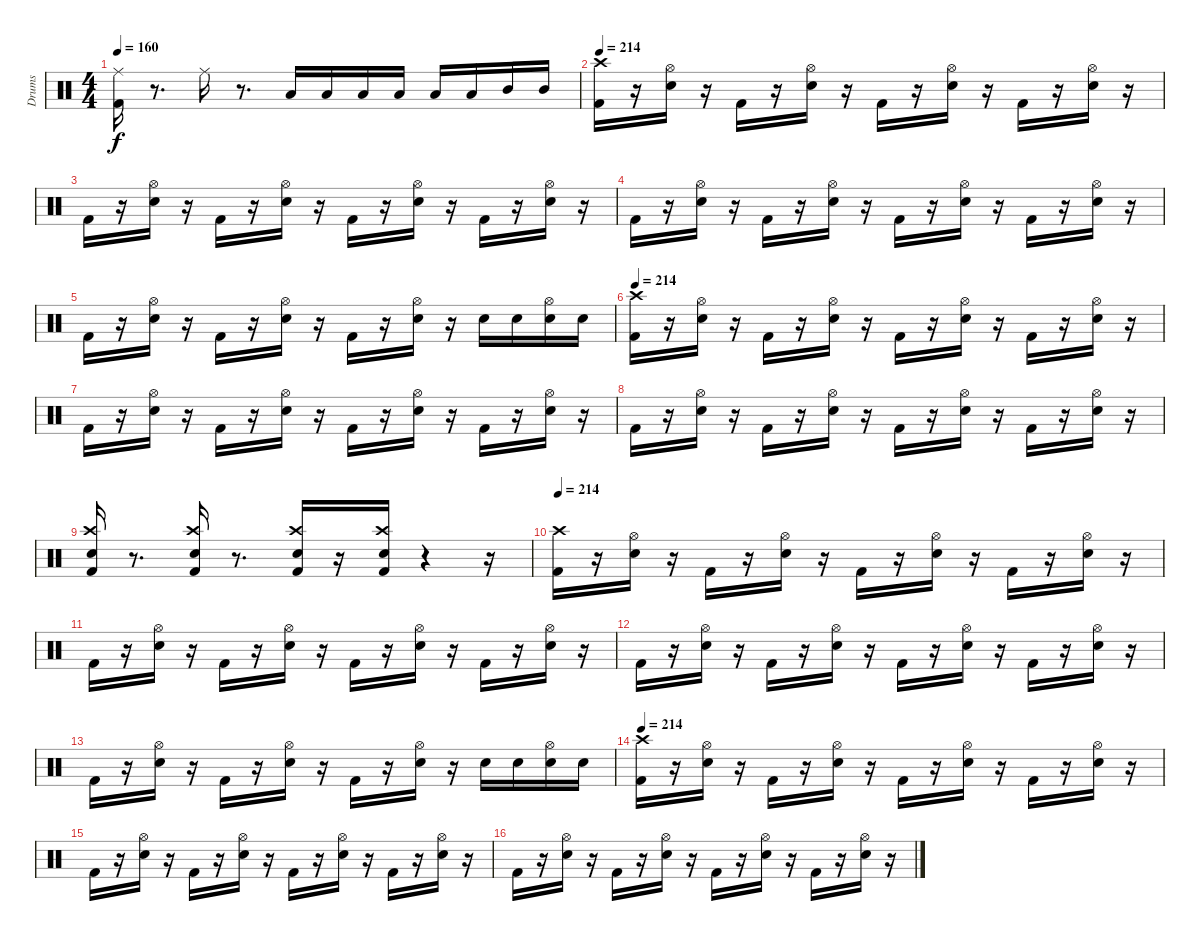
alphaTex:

\track ("Drums               " "Drums     ") {instrument percussion}
\staff {score}
\articulation defaults
\ts (4 4)
\tempo 160
\clef neutral
\ks c
("Kick (hit) 2" "Ride (middle)").16{dy f} r.8{d} "Ride (middle)".16 r.8{d} "Low Floor Tom (hit)".16 "Low Floor Tom (hit)".16 "Low Floor Tom (hit)".16 "Low Tom (hit)".16 "Low Tom (hit)".16 "Low Tom (hit)".16 "Mid Tom (hit)".16 "Mid Tom (hit)".16 |
\tempo 214
("Kick (hit) 2" "Crash high (hit)").16 r.16 ("Snare (hit) 2" "Hi-Hat (open)").16 r.16 "Kick (hit) 2".16 r.16 ("Snare (hit) 2" "Hi-Hat (open)").16 r.16 "Kick (hit) 2".16 r.16 ("Snare (hit) 2" "Hi-Hat (open)").16 r.16 "Kick (hit) 2".16 r.16 ("Snare (hit) 2" "Hi-Hat (open)").16 r.16 |
"Kick (hit) 2".16 r.16 ("Snare (hit) 2" "Hi-Hat (open)").16 r.16 "Kick (hit) 2".16 r.16 ("Snare (hit) 2" "Hi-Hat (open)").16 r.16 "Kick (hit) 2".16 r.16 ("Snare (hit) 2" "Hi-Hat (open)").16 r.16 "Kick (hit) 2".16 r.16 ("Snare (hit) 2" "Hi-Hat (open)").16 r.16 |
"Kick (hit) 2".16 r.16 ("Snare (hit) 2" "Hi-Hat (open)").16 r.16 "Kick (hit) 2".16 r.16 ("Snare (hit) 2" "Hi-Hat (open)").16 r.16 "Kick (hit) 2".16 r.16 ("Snare (hit) 2" "Hi-Hat (open)").16 r.16 "Kick (hit) 2".16 r.16 ("Snare (hit) 2" "Hi-Hat (open)").16 r.16 |
"Kick (hit) 2".16 r.16 ("Snare (hit) 2" "Hi-Hat (open)").16 r.16 "Kick (hit) 2".16 r.16 ("Snare (hit) 2" "Hi-Hat (open)").16 r.16 "Kick (hit) 2".16 r.16 ("Snare (hit) 2" "Hi-Hat (open)").16 r.16 "Snare (hit) 2".16 "Snare (hit) 2".16 ("Snare (hit) 2" "Hi-Hat (open)").16 "Snare (hit) 2".16 |
\tempo 214
("Kick (hit) 2" "Crash high (hit)").16 r.16 ("Snare (hit) 2" "Hi-Hat (open)").16 r.16 "Kick (hit) 2".16 r.16 ("Snare (hit) 2" "Hi-Hat (open)").16 r.16 "Kick (hit) 2".16 r.16 ("Snare (hit) 2" "Hi-Hat (open)").16 r.16 "Kick (hit) 2".16 r.16 ("Snare (hit) 2" "Hi-Hat (open)").16 r.16 |
"Kick (hit) 2".16 r.16 ("Snare (hit) 2" "Hi-Hat (open)").16 r.16 "Kick (hit) 2".16 r.16 ("Snare (hit) 2" "Hi-Hat (open)").16 r.16 "Kick (hit) 2".16 r.16 ("Snare (hit) 2" "Hi-Hat (open)").16 r.16 "Kick (hit) 2".16 r.16 ("Snare (hit) 2" "Hi-Hat (open)").16 r.16 |
"Kick (hit) 2".16 r.16 ("Snare (hit) 2" "Hi-Hat (open)").16 r.16 "Kick (hit) 2".16 r.16 ("Snare (hit) 2" "Hi-Hat (open)").16 r.16 "Kick (hit) 2".16 r.16 ("Snare (hit) 2" "Hi-Hat (open)").16 r.16 "Kick (hit) 2".16 r.16 ("Snare (hit) 2" "Hi-Hat (open)").16 r.16 |
("Kick (hit) 2" "Snare (hit) 2" "Crash high (hit)").16 r.8{d} ("Kick (hit) 2" "Snare (hit) 2" "Crash high (hit)").16 r.8{d} ("Kick (hit) 2" "Snare (hit) 2" "Crash high (hit)").16 r.16 ("Kick (hit) 2" "Snare (hit) 2" "Crash high (hit)").16 r.4 r.16 |
\tempo 214
("Kick (hit) 2" "Crash high (hit)").16 r.16 ("Snare (hit) 2" "Hi-Hat (open)").16 r.16 "Kick (hit) 2".16 r.16 ("Snare (hit) 2" "Hi-Hat (open)").16 r.16 "Kick (hit) 2".16 r.16 ("Snare (hit) 2" "Hi-Hat (open)").16 r.16 "Kick (hit) 2".16 r.16 ("Snare (hit) 2" "Hi-Hat (open)").16 r.16 |
"Kick (hit) 2".16 r.16 ("Snare (hit) 2" "Hi-Hat (open)").16 r.16 "Kick (hit) 2".16 r.16 ("Snare (hit) 2" "Hi-Hat (open)").16 r.16 "Kick (hit) 2".16 r.16 ("Snare (hit) 2" "Hi-Hat (open)").16 r.16 "Kick (hit) 2".16 r.16 ("Snare (hit) 2" "Hi-Hat (open)").16 r.16 |
"Kick (hit) 2".16 r.16 ("Snare (hit) 2" "Hi-Hat (open)").16 r.16 "Kick (hit) 2".16 r.16 ("Snare (hit) 2" "Hi-Hat (open)").16 r.16 "Kick (hit) 2".16 r.16 ("Snare (hit) 2" "Hi-Hat (open)").16 r.16 "Kick (hit) 2".16 r.16 ("Snare (hit) 2" "Hi-Hat (open)").16 r.16 |
"Kick (hit) 2".16 r.16 ("Snare (hit) 2" "Hi-Hat (open)").16 r.16 "Kick (hit) 2".16 r.16 ("Snare (hit) 2" "Hi-Hat (open)").16 r.16 "Kick (hit) 2".16 r.16 ("Snare (hit) 2" "Hi-Hat (open)").16 r.16 "Snare (hit) 2".16 "Snare (hit) 2".16 ("Snare (hit) 2" "Hi-Hat (open)").16 "Snare (hit) 2".16 |
\tempo 214
("Kick (hit) 2" "Crash high (hit)").16 r.16 ("Snare (hit) 2" "Hi-Hat (open)").16 r.16 "Kick (hit) 2".16 r.16 ("Snare (hit) 2" "Hi-Hat (open)").16 r.16 "Kick (hit) 2".16 r.16 ("Snare (hit) 2" "Hi-Hat (open)").16 r.16 "Kick (hit) 2".16 r.16 ("Snare (hit) 2" "Hi-Hat (open)").16 r.16 |
"Kick (hit) 2".16 r.16 ("Snare (hit) 2" "Hi-Hat (open)").16 r.16 "Kick (hit) 2".16 r.16 ("Snare (hit) 2" "Hi-Hat (open)").16 r.16 "Kick (hit) 2".16 r.16 ("Snare (hit) 2" "Hi-Hat (open)").16 r.16 "Kick (hit) 2".16 r.16 ("Snare (hit) 2" "Hi-Hat (open)").16 r.16 |
"Kick (hit) 2".16 r.16 ("Snare (hit) 2" "Hi-Hat (open)").16 r.16 "Kick (hit) 2".16 r.16 ("Snare (hit) 2" "Hi-Hat (open)").16 r.16 "Kick (hit) 2".16 r.16 ("Snare (hit) 2" "Hi-Hat (open)").16 r.16 "Kick (hit) 2".16 r.16 ("Snare (hit) 2" "Hi-Hat (open)").16 r.16
